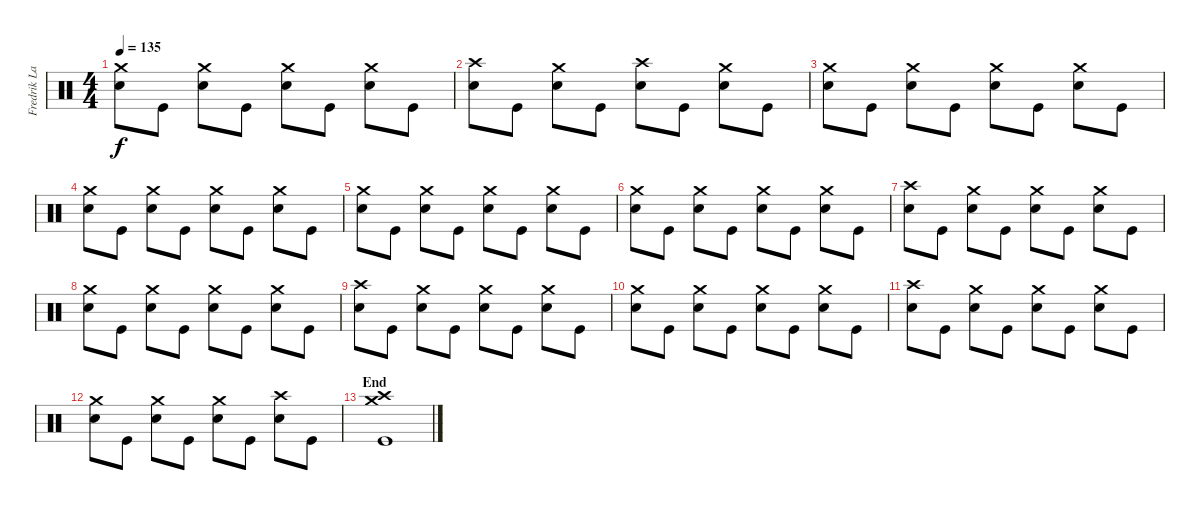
\track ("Fredrik Larzon" "Fredrik La") {instrument percussion}
\staff {score}
\articulation defaults
\ts (4 4)
\tempo 135
\clef neutral
\ks c
("Crash medium (hit)" "Electric Snare (hit)").8{dy f} "Kick (hit)".8 ("Crash medium (hit)" "Electric Snare (hit)").8 "Kick (hit)".8 ("Crash medium (hit)" "Electric Snare (hit)").8 "Kick (hit)".8 ("Crash medium (hit)" "Electric Snare (hit)").8 "Kick (hit)".8 |
("Crash high (hit)" "Electric Snare (hit)").8 "Kick (hit)".8 ("Crash medium (hit)" "Electric Snare (hit)").8 "Kick (hit)".8 ("Crash high (hit)" "Electric Snare (hit)").8 "Kick (hit)".8 ("Crash medium (hit)" "Electric Snare (hit)").8 "Kick (hit)".8 |
("Crash medium (hit)" "Electric Snare (hit)").8 "Kick (hit)".8 ("Crash medium (hit)" "Electric Snare (hit)").8 "Kick (hit)".8 ("Crash medium (hit)" "Electric Snare (hit)").8 "Kick (hit)".8 ("Crash medium (hit)" "Electric Snare (hit)").8 "Kick (hit)".8 |
("Crash medium (hit)" "Electric Snare (hit)").8 "Kick (hit)".8 ("Crash medium (hit)" "Electric Snare (hit)").8 "Kick (hit)".8 ("Crash medium (hit)" "Electric Snare (hit)").8 "Kick (hit)".8 ("Crash medium (hit)" "Electric Snare (hit)").8 "Kick (hit)".8 |
("Crash medium (hit)" "Electric Snare (hit)").8 "Kick (hit)".8 ("Crash medium (hit)" "Electric Snare (hit)").8 "Kick (hit)".8 ("Crash medium (hit)" "Electric Snare (hit)").8 "Kick (hit)".8 ("Crash medium (hit)" "Electric Snare (hit)").8 "Kick (hit)".8 |
("Crash medium (hit)" "Electric Snare (hit)").8 "Kick (hit)".8 ("Crash medium (hit)" "Electric Snare (hit)").8 "Kick (hit)".8 ("Crash medium (hit)" "Electric Snare (hit)").8 "Kick (hit)".8 ("Crash medium (hit)" "Electric Snare (hit)").8 "Kick (hit)".8 |
("Crash high (hit)" "Electric Snare (hit)").8 "Kick (hit)".8 ("Crash medium (hit)" "Electric Snare (hit)").8 "Kick (hit)".8 ("Crash medium (hit)" "Electric Snare (hit)").8 "Kick (hit)".8 ("Crash medium (hit)" "Electric Snare (hit)").8 "Kick (hit)".8 |
("Crash medium (hit)" "Electric Snare (hit)").8 "Kick (hit)".8 ("Crash medium (hit)" "Electric Snare (hit)").8 "Kick (hit)".8 ("Crash medium (hit)" "Electric Snare (hit)").8 "Kick (hit)".8 ("Crash medium (hit)" "Electric Snare (hit)").8 "Kick (hit)".8 |
("Crash high (hit)" "Electric Snare (hit)").8 "Kick (hit)".8 ("Crash medium (hit)" "Electric Snare (hit)").8 "Kick (hit)".8 ("Crash medium (hit)" "Electric Snare (hit)").8 "Kick (hit)".8 ("Crash medium (hit)" "Electric Snare (hit)").8 "Kick (hit)".8 |
("Crash medium (hit)" "Electric Snare (hit)").8 "Kick (hit)".8 ("Crash medium (hit)" "Electric Snare (hit)").8 "Kick (hit)".8 ("Crash medium (hit)" "Electric Snare (hit)").8 "Kick (hit)".8 ("Crash medium (hit)" "Electric Snare (hit)").8 "Kick (hit)".8 |
("Crash high (hit)" "Electric Snare (hit)").8 "Kick (hit)".8 ("Crash medium (hit)" "Electric Snare (hit)").8 "Kick (hit)".8 ("Crash medium (hit)" "Electric Snare (hit)").8 "Kick (hit)".8 ("Crash medium (hit)" "Electric Snare (hit)").8 "Kick (hit)".8 |
("Crash medium (hit)" "Electric Snare (hit)").8 "Kick (hit)".8 ("Crash medium (hit)" "Electric Snare (hit)").8 "Kick (hit)".8 ("Crash medium (hit)" "Electric Snare (hit)").8 "Kick (hit)".8 ("Crash high (hit)" "Electric Snare (hit)").8 "Kick (hit)".8 |
\section ("" "End")
("Crash high (hit)" "Crash medium (hit)" "Kick (hit)").1
